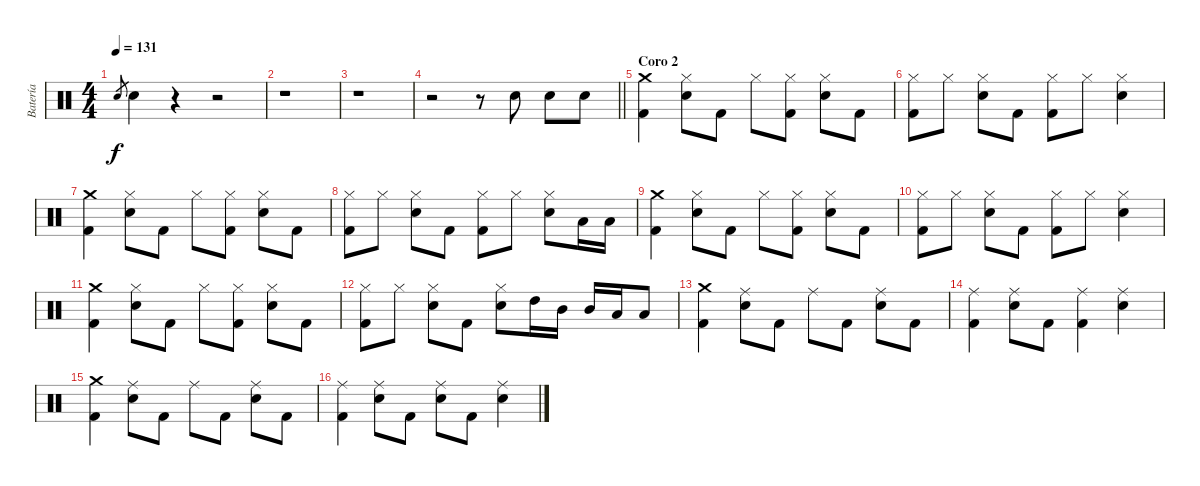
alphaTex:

\track ("Batería" "Batería") {instrument percussion}
\staff {score}
\articulation defaults
\ts (4 4)
\tempo 131
\clef neutral
\ks aminor "Electric Snare (hit)".8{gr dy f} "Electric Snare (hit)".4
r.4 r.2 |
r.1 |
r.1 |
\barLineRight lightlight
r.2 r.8 "Electric Snare (hit)".8 "Electric Snare (hit)".8 "Electric Snare (hit)".8 |
\section ("" "Coro 2")
("Crash medium (hit)" "Kick (hit) 2").4 ("Hi-Hat (closed)" "Electric Snare (hit)").8 "Kick (hit) 2".8 "Hi-Hat (closed)".8 ("Hi-Hat (closed)" "Kick (hit) 2").8 ("Hi-Hat (closed)" "Electric Snare (hit)").8 "Kick (hit) 2".8 |
("Hi-Hat (closed)" "Kick (hit) 2").8 "Hi-Hat (closed)".8 ("Hi-Hat (closed)" "Electric Snare (hit)").8 "Kick (hit) 2".8 ("Hi-Hat (closed)" "Kick (hit) 2").8 "Hi-Hat (closed)".8 ("Hi-Hat (closed)" "Electric Snare (hit)").4 |
("Crash medium (hit)" "Kick (hit) 2").4 ("Hi-Hat (closed)" "Electric Snare (hit)").8 "Kick (hit) 2".8 "Hi-Hat (closed)".8 ("Hi-Hat (closed)" "Kick (hit) 2").8 ("Hi-Hat (closed)" "Electric Snare (hit)").8 "Kick (hit) 2".8 |
("Hi-Hat (closed)" "Kick (hit) 2").8 "Hi-Hat (closed)".8 ("Hi-Hat (closed)" "Electric Snare (hit)").8 "Kick (hit) 2".8 ("Hi-Hat (closed)" "Kick (hit) 2").8 "Hi-Hat (closed)".8 ("Hi-Hat (closed)" "Electric Snare (hit)").8 "Low Tom (hit)".16 "Low Tom (hit)".16 |
("Crash medium (hit)" "Kick (hit) 2").4 ("Hi-Hat (closed)" "Electric Snare (hit)").8 "Kick (hit) 2".8 "Hi-Hat (closed)".8 ("Hi-Hat (closed)" "Kick (hit) 2").8 ("Hi-Hat (closed)" "Electric Snare (hit)").8 "Kick (hit) 2".8 |
("Hi-Hat (closed)" "Kick (hit) 2").8 "Hi-Hat (closed)".8 ("Hi-Hat (closed)" "Electric Snare (hit)").8 "Kick (hit) 2".8 ("Hi-Hat (closed)" "Kick (hit) 2").8 "Hi-Hat (closed)".8 ("Hi-Hat (closed)" "Electric Snare (hit)").4 |
("Crash medium (hit)" "Kick (hit) 2").4 ("Hi-Hat (closed)" "Electric Snare (hit)").8 "Kick (hit) 2".8 "Hi-Hat (closed)".8 ("Hi-Hat (closed)" "Kick (hit) 2").8 ("Hi-Hat (closed)" "Electric Snare (hit)").8 "Kick (hit) 2".8 |
("Hi-Hat (closed)" "Kick (hit) 2").8 "Hi-Hat (closed)".8 ("Hi-Hat (closed)" "Electric Snare (hit)").8 "Kick (hit) 2".8 ("Hi-Hat (closed)" "Electric Snare (hit)").8 "High Tom (hit)".16 "Mid Tom (hit)".16 "Mid Tom (hit)".16 "Low Tom (hit)".16 "Low Tom (hit)".8 |
("Crash medium (hit)" "Kick (hit) 2").4 ("Ride (middle)" "Electric Snare (hit)").8 "Kick (hit) 2".8 "Ride (middle)".8 "Kick (hit) 2".8 ("Ride (middle)" "Electric Snare (hit)").8 "Kick (hit) 2".8 |
("Ride (middle)" "Kick (hit) 2").4 ("Ride (middle)" "Electric Snare (hit)").8 "Kick (hit) 2".8 ("Ride (middle)" "Kick (hit) 2").4 ("Ride (middle)" "Electric Snare (hit)").4 |
("Crash medium (hit)" "Kick (hit) 2").4 ("Ride (middle)" "Electric Snare (hit)").8 "Kick (hit) 2".8 "Ride (middle)".8 "Kick (hit) 2".8 ("Ride (middle)" "Electric Snare (hit)").8 "Kick (hit) 2".8 |
("Ride (middle)" "Kick (hit) 2").4 ("Ride (middle)" "Electric Snare (hit)").8 "Kick (hit) 2".8 ("Ride (middle)" "Electric Snare (hit)").8 "Kick (hit) 2".8 ("Ride (middle)" "Electric Snare (hit)").4
